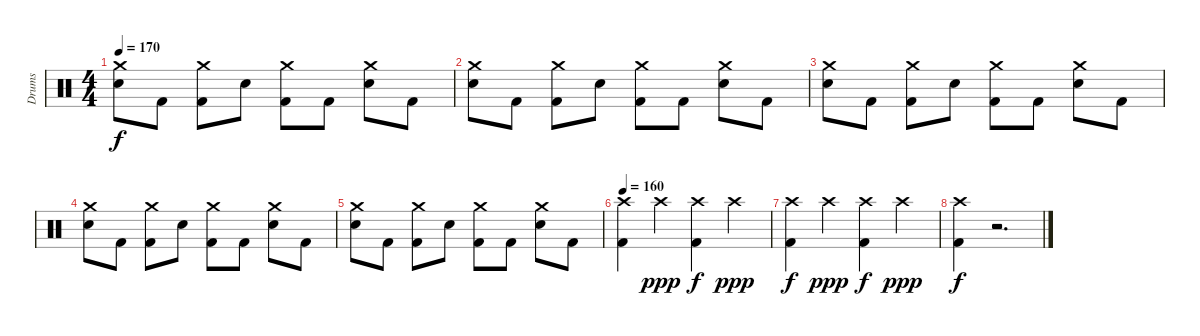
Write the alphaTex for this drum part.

\track ("Drums" "Drums") {instrument percussion}
\staff {score}
\articulation defaults
\ts (4 4)
\tempo 170
\clef neutral
\ks c
("Crash medium (hit)" "Electric Snare (hit)").8{dy f} "Kick (hit) 2".8 ("Crash medium (hit)" "Kick (hit) 2").8 "Electric Snare (hit)".8 ("Crash medium (hit)" "Kick (hit) 2").8 "Kick (hit) 2".8 ("Crash medium (hit)" "Electric Snare (hit)").8 "Kick (hit) 2".8 |
("Crash medium (hit)" "Electric Snare (hit)").8 "Kick (hit) 2".8 ("Crash medium (hit)" "Kick (hit) 2").8 "Electric Snare (hit)".8 ("Crash medium (hit)" "Kick (hit) 2").8 "Kick (hit) 2".8 ("Crash medium (hit)" "Electric Snare (hit)").8 "Kick (hit) 2".8 |
("Crash medium (hit)" "Electric Snare (hit)").8 "Kick (hit) 2".8 ("Crash medium (hit)" "Kick (hit) 2").8 "Electric Snare (hit)".8 ("Crash medium (hit)" "Kick (hit) 2").8 "Kick (hit) 2".8 ("Crash medium (hit)" "Electric Snare (hit)").8 "Kick (hit) 2".8 |
("Crash medium (hit)" "Electric Snare (hit)").8 "Kick (hit) 2".8 ("Crash medium (hit)" "Kick (hit) 2").8 "Electric Snare (hit)".8 ("Crash medium (hit)" "Kick (hit) 2").8 "Kick (hit) 2".8 ("Crash medium (hit)" "Electric Snare (hit)").8 "Kick (hit) 2".8 |
("Crash medium (hit)" "Electric Snare (hit)").8 "Kick (hit) 2".8 ("Crash medium (hit)" "Kick (hit) 2").8 "Electric Snare (hit)".8 ("Crash medium (hit)" "Kick (hit) 2").8 "Kick (hit) 2".8 ("Crash medium (hit)" "Electric Snare (hit)").8 "Kick (hit) 2".8 |
\tempo 160
("Crash high (hit)" "Kick (hit) 2").4 "Crash high (hit)".4{dy ppp} ("Crash high (hit)" "Kick (hit) 2").4{dy f} "Crash high (hit)".4{dy ppp} |
("Crash high (hit)" "Kick (hit) 2").4{dy f} "Crash high (hit)".4{dy ppp} ("Crash high (hit)" "Kick (hit) 2").4{dy f} "Crash high (hit)".4{dy ppp} |
("Crash high (hit)" "Kick (hit) 2").4{dy f} r.2{d}
